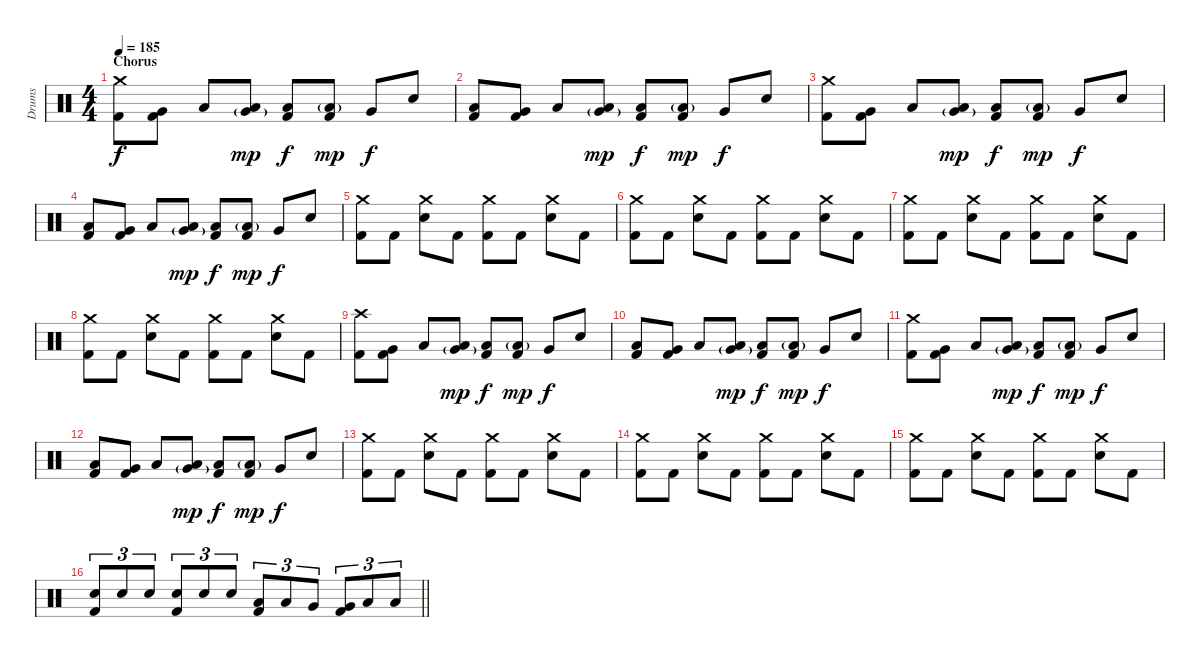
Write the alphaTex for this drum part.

\track ("Drums" "Drums") {instrument percussion}
\staff {score}
\articulation defaults
\ts (4 4)
\section ("" "Chorus")
\tempo 185
\clef neutral
\ks c
("Crash medium (hit)" "Kick (hit) 2").8{dy f} ("Very Low Tom (hit)" "Kick (hit) 2").8 "Low Floor Tom (hit)".8 ("Low Tom (hit)" "Very Low Tom (hit)"{g}).8{dy mp} ("Low Floor Tom (hit)" "Kick (hit) 2").8{dy f} ("Low Floor Tom (hit)"{g} "Kick (hit) 2").8{dy mp} "Very Low Tom (hit)".8{dy f} "Electric Snare (hit)".8 |
("Low Tom (hit)" "Kick (hit) 2").8 ("Very Low Tom (hit)" "Kick (hit) 2").8 "Low Floor Tom (hit)".8 ("Low Tom (hit)" "Very Low Tom (hit)"{g}).8{dy mp} ("Low Floor Tom (hit)" "Kick (hit) 2").8{dy f} ("Low Floor Tom (hit)"{g} "Kick (hit) 2").8{dy mp} "Very Low Tom (hit)".8{dy f} "Electric Snare (hit)".8 |
("Crash medium (hit)" "Kick (hit) 2").8 ("Very Low Tom (hit)" "Kick (hit) 2").8 "Low Floor Tom (hit)".8 ("Low Tom (hit)" "Very Low Tom (hit)"{g}).8{dy mp} ("Low Floor Tom (hit)" "Kick (hit) 2").8{dy f} ("Low Floor Tom (hit)"{g} "Kick (hit) 2").8{dy mp} "Very Low Tom (hit)".8{dy f} "Electric Snare (hit)".8 |
("Low Tom (hit)" "Kick (hit) 2").8 ("Very Low Tom (hit)" "Kick (hit) 2").8 "Low Floor Tom (hit)".8 ("Low Tom (hit)" "Very Low Tom (hit)"{g}).8{dy mp} ("Low Floor Tom (hit)" "Kick (hit) 2").8{dy f} ("Low Floor Tom (hit)"{g} "Kick (hit) 2").8{dy mp} "Very Low Tom (hit)".8{dy f} "Electric Snare (hit)".8 |
("Crash medium (hit)" "Kick (hit) 2").8 "Kick (hit) 2".8 ("Crash medium (hit)" "Electric Snare (hit)").8 "Kick (hit) 2".8 ("Crash medium (hit)" "Kick (hit) 2").8 "Kick (hit) 2".8 ("Crash medium (hit)" "Electric Snare (hit)").8 "Kick (hit) 2".8 |
("Crash medium (hit)" "Kick (hit) 2").8 "Kick (hit) 2".8 ("Crash medium (hit)" "Electric Snare (hit)").8 "Kick (hit) 2".8 ("Crash medium (hit)" "Kick (hit) 2").8 "Kick (hit) 2".8 ("Crash medium (hit)" "Electric Snare (hit)").8 "Kick (hit) 2".8 |
("Crash medium (hit)" "Kick (hit) 2").8 "Kick (hit) 2".8 ("Crash medium (hit)" "Electric Snare (hit)").8 "Kick (hit) 2".8 ("Crash medium (hit)" "Kick (hit) 2").8 "Kick (hit) 2".8 ("Crash medium (hit)" "Electric Snare (hit)").8 "Kick (hit) 2".8 |
("Crash medium (hit)" "Kick (hit) 2").8 "Kick (hit) 2".8 ("Crash medium (hit)" "Electric Snare (hit)").8 "Kick (hit) 2".8 ("Crash medium (hit)" "Kick (hit) 2").8 "Kick (hit) 2".8 ("Crash medium (hit)" "Electric Snare (hit)").8 "Kick (hit) 2".8 |
("Crash high (hit)" "Kick (hit) 2").8 ("Very Low Tom (hit)" "Kick (hit) 2").8 "Low Floor Tom (hit)".8 ("Low Tom (hit)" "Very Low Tom (hit)"{g}).8{dy mp} ("Low Floor Tom (hit)" "Kick (hit) 2").8{dy f} ("Low Floor Tom (hit)"{g} "Kick (hit) 2").8{dy mp} "Very Low Tom (hit)".8{dy f} "Electric Snare (hit)".8 |
("Low Tom (hit)" "Kick (hit) 2").8 ("Very Low Tom (hit)" "Kick (hit) 2").8 "Low Floor Tom (hit)".8 ("Low Tom (hit)" "Very Low Tom (hit)"{g}).8{dy mp} ("Low Floor Tom (hit)" "Kick (hit) 2").8{dy f} ("Low Floor Tom (hit)"{g} "Kick (hit) 2").8{dy mp} "Very Low Tom (hit)".8{dy f} "Electric Snare (hit)".8 |
("Crash medium (hit)" "Kick (hit) 2").8 ("Very Low Tom (hit)" "Kick (hit) 2").8 "Low Floor Tom (hit)".8 ("Low Tom (hit)" "Very Low Tom (hit)"{g}).8{dy mp} ("Low Floor Tom (hit)" "Kick (hit) 2").8{dy f} ("Low Floor Tom (hit)"{g} "Kick (hit) 2").8{dy mp} "Very Low Tom (hit)".8{dy f} "Electric Snare (hit)".8 |
("Low Tom (hit)" "Kick (hit) 2").8 ("Very Low Tom (hit)" "Kick (hit) 2").8 "Low Floor Tom (hit)".8 ("Low Tom (hit)" "Very Low Tom (hit)"{g}).8{dy mp} ("Low Floor Tom (hit)" "Kick (hit) 2").8{dy f} ("Low Floor Tom (hit)"{g} "Kick (hit) 2").8{dy mp} "Very Low Tom (hit)".8{dy f} "Electric Snare (hit)".8 |
("Crash medium (hit)" "Kick (hit) 2").8 "Kick (hit) 2".8 ("Crash medium (hit)" "Electric Snare (hit)").8 "Kick (hit) 2".8 ("Crash medium (hit)" "Kick (hit) 2").8 "Kick (hit) 2".8 ("Crash medium (hit)" "Electric Snare (hit)").8 "Kick (hit) 2".8 |
("Crash medium (hit)" "Kick (hit) 2").8 "Kick (hit) 2".8 ("Crash medium (hit)" "Electric Snare (hit)").8 "Kick (hit) 2".8 ("Crash medium (hit)" "Kick (hit) 2").8 "Kick (hit) 2".8 ("Crash medium (hit)" "Electric Snare (hit)").8 "Kick (hit) 2".8 |
("Crash medium (hit)" "Kick (hit) 2").8 "Kick (hit) 2".8 ("Crash medium (hit)" "Electric Snare (hit)").8 "Kick (hit) 2".8 ("Crash medium (hit)" "Kick (hit) 2").8 "Kick (hit) 2".8 ("Crash medium (hit)" "Electric Snare (hit)").8 "Kick (hit) 2".8 |
\barLineRight lightlight
("Electric Snare (hit)" "Kick (hit) 2").8{tu (3 2)} "Electric Snare (hit)".8{tu (3 2)} "Electric Snare (hit)".8{tu (3 2)} ("Electric Snare (hit)" "Kick (hit) 2").8{tu (3 2)} "Electric Snare (hit)".8{tu (3 2)} "Electric Snare (hit)".8{tu (3 2)} ("Low Tom (hit)" "Kick (hit) 2").8{tu (3 2)} "Low Tom (hit)".8{tu (3 2)} "Very Low Tom (hit)".8{tu (3 2)} ("Very Low Tom (hit)" "Kick (hit) 2").8{tu (3 2)} "Low Floor Tom (hit)".8{tu (3 2)} "Low Floor Tom (hit)".8{tu (3 2)}
